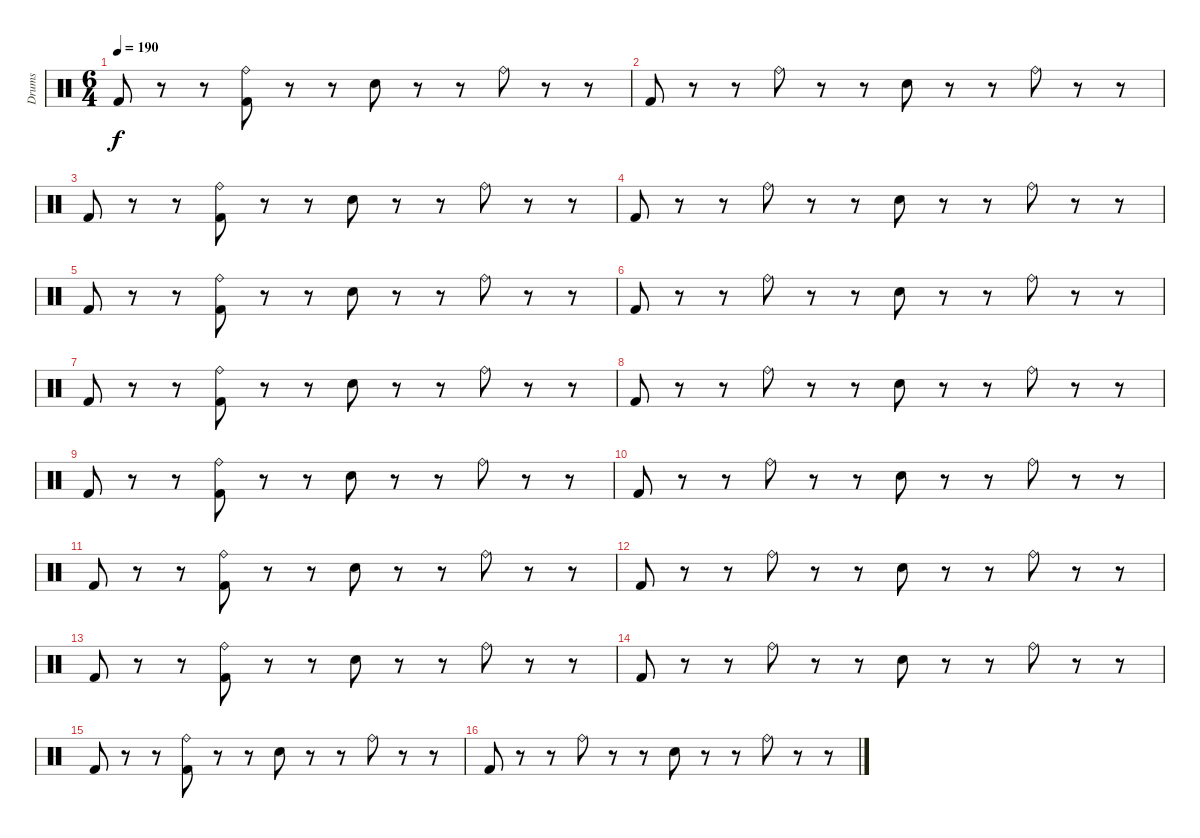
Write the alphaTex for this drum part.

\track ("Drums" "Drums") {instrument percussion}
\staff {score}
\articulation defaults
\ts (6 4)
\tempo 190
\clef neutral
\ks c "Kick (hit) 2".8{dy f}
r.8 r.8 ("Ride (bell)" "Kick (hit) 2").8 r.8 r.8 "Electric Snare (hit)".8 r.8 r.8 "Ride (bell)".8 r.8 r.8 |
"Kick (hit) 2".8 r.8 r.8 "Ride (bell)".8 r.8 r.8 "Electric Snare (hit)".8 r.8 r.8 "Ride (bell)".8 r.8 r.8 |
"Kick (hit) 2".8 r.8 r.8 ("Ride (bell)" "Kick (hit) 2").8 r.8 r.8 "Electric Snare (hit)".8 r.8 r.8 "Ride (bell)".8 r.8 r.8 |
"Kick (hit) 2".8 r.8 r.8 "Ride (bell)".8 r.8 r.8 "Electric Snare (hit)".8 r.8 r.8 "Ride (bell)".8 r.8 r.8 |
"Kick (hit) 2".8 r.8 r.8 ("Ride (bell)" "Kick (hit) 2").8 r.8 r.8 "Electric Snare (hit)".8 r.8 r.8 "Ride (bell)".8 r.8 r.8 |
"Kick (hit) 2".8 r.8 r.8 "Ride (bell)".8 r.8 r.8 "Electric Snare (hit)".8 r.8 r.8 "Ride (bell)".8 r.8 r.8 |
"Kick (hit) 2".8 r.8 r.8 ("Ride (bell)" "Kick (hit) 2").8 r.8 r.8 "Electric Snare (hit)".8 r.8 r.8 "Ride (bell)".8 r.8 r.8 |
"Kick (hit) 2".8 r.8 r.8 "Ride (bell)".8 r.8 r.8 "Electric Snare (hit)".8 r.8 r.8 "Ride (bell)".8 r.8 r.8 |
"Kick (hit) 2".8 r.8 r.8 ("Ride (bell)" "Kick (hit) 2").8 r.8 r.8 "Electric Snare (hit)".8 r.8 r.8 "Ride (bell)".8 r.8 r.8 |
"Kick (hit) 2".8 r.8 r.8 "Ride (bell)".8 r.8 r.8 "Electric Snare (hit)".8 r.8 r.8 "Ride (bell)".8 r.8 r.8 |
"Kick (hit) 2".8 r.8 r.8 ("Ride (bell)" "Kick (hit) 2").8 r.8 r.8 "Electric Snare (hit)".8 r.8 r.8 "Ride (bell)".8 r.8 r.8 |
"Kick (hit) 2".8 r.8 r.8 "Ride (bell)".8 r.8 r.8 "Electric Snare (hit)".8 r.8 r.8 "Ride (bell)".8 r.8 r.8 |
"Kick (hit) 2".8 r.8 r.8 ("Ride (bell)" "Kick (hit) 2").8 r.8 r.8 "Electric Snare (hit)".8 r.8 r.8 "Ride (bell)".8 r.8 r.8 |
"Kick (hit) 2".8 r.8 r.8 "Ride (bell)".8 r.8 r.8 "Electric Snare (hit)".8 r.8 r.8 "Ride (bell)".8 r.8 r.8 |
"Kick (hit) 2".8 r.8 r.8 ("Ride (bell)" "Kick (hit) 2").8 r.8 r.8 "Electric Snare (hit)".8 r.8 r.8 "Ride (bell)".8 r.8 r.8 |
"Kick (hit) 2".8 r.8 r.8 "Ride (bell)".8 r.8 r.8 "Electric Snare (hit)".8 r.8 r.8 "Ride (bell)".8 r.8 r.8
